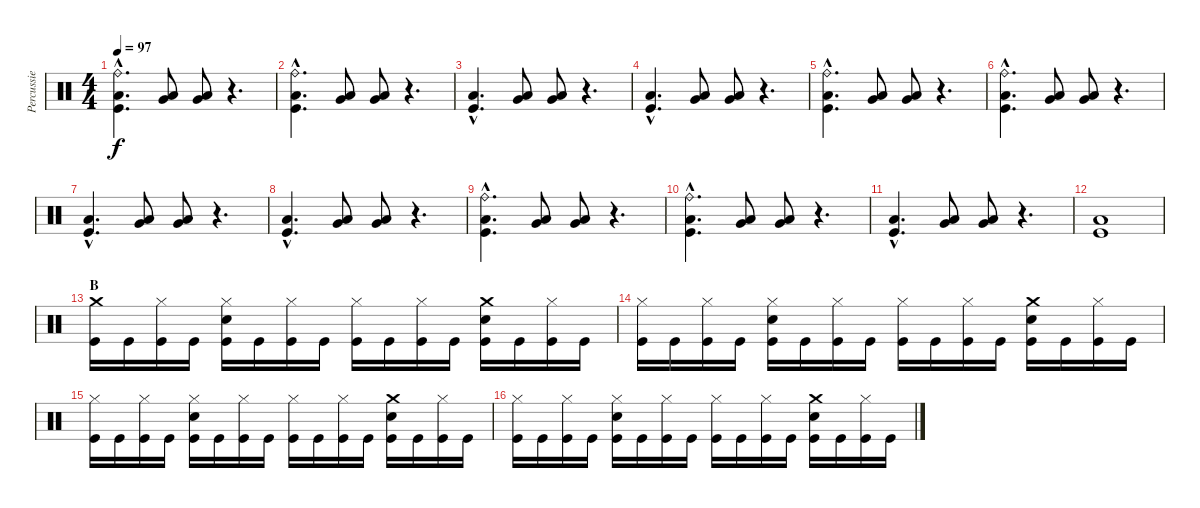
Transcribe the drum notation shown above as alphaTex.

\track ("Percussie" "Percussie") {instrument percussion}
\staff {score}
\articulation defaults
\ts (4 4)
\tempo 97
\clef neutral
\ks c
("Ride (bell)"{hac} "Low Floor Tom (hit)"{hac} "Kick (hit)"{hac}).4{d dy f} ("Low Tom (hit)" "Very Low Tom (hit)").8 ("Low Tom (hit)" "Very Low Tom (hit)").8 r.4{d} |
("Ride (bell)"{hac} "Low Floor Tom (hit)"{hac} "Kick (hit)"{hac}).4{d} ("Low Tom (hit)" "Very Low Tom (hit)").8 ("Low Tom (hit)" "Very Low Tom (hit)").8 r.4{d} |
("Low Floor Tom (hit)"{hac} "Kick (hit)"{hac}).4{d} ("Low Tom (hit)" "Very Low Tom (hit)").8 ("Low Tom (hit)" "Very Low Tom (hit)").8 r.4{d} |
("Low Floor Tom (hit)"{hac} "Kick (hit)"{hac}).4{d} ("Low Tom (hit)" "Very Low Tom (hit)").8 ("Low Tom (hit)" "Very Low Tom (hit)").8 r.4{d} |
("Ride (bell)"{hac} "Low Floor Tom (hit)"{hac} "Kick (hit)"{hac}).4{d} ("Low Tom (hit)" "Very Low Tom (hit)").8 ("Low Tom (hit)" "Very Low Tom (hit)").8 r.4{d} |
("Ride (bell)"{hac} "Low Floor Tom (hit)"{hac} "Kick (hit)"{hac}).4{d} ("Low Tom (hit)" "Very Low Tom (hit)").8 ("Low Tom (hit)" "Very Low Tom (hit)").8 r.4{d} |
("Low Floor Tom (hit)"{hac} "Kick (hit)"{hac}).4{d} ("Low Tom (hit)" "Very Low Tom (hit)").8 ("Low Tom (hit)" "Very Low Tom (hit)").8 r.4{d} |
("Low Floor Tom (hit)"{hac} "Kick (hit)"{hac}).4{d} ("Low Tom (hit)" "Very Low Tom (hit)").8 ("Low Tom (hit)" "Very Low Tom (hit)").8 r.4{d} |
("Ride (bell)"{hac} "Low Floor Tom (hit)"{hac} "Kick (hit)"{hac}).4{d} ("Low Tom (hit)" "Very Low Tom (hit)").8 ("Low Tom (hit)" "Very Low Tom (hit)").8 r.4{d} |
("Ride (bell)"{hac} "Low Floor Tom (hit)"{hac} "Kick (hit)"{hac}).4{d} ("Low Tom (hit)" "Very Low Tom (hit)").8 ("Low Tom (hit)" "Very Low Tom (hit)").8 r.4{d} |
("Low Floor Tom (hit)"{hac} "Kick (hit)"{hac}).4{d} ("Low Tom (hit)" "Very Low Tom (hit)").8 ("Low Tom (hit)" "Very Low Tom (hit)").8 r.4{d} |
("Low Floor Tom (hit)" "Kick (hit)").1 |
\section ("" "B")
("Crash medium (hit)" "Kick (hit)").16 "Kick (hit)".16 ("Hi-Hat (closed)" "Kick (hit)").16 "Kick (hit)".16 ("Hi-Hat (closed)" "Electric Snare (hit)" "Kick (hit)").16 "Kick (hit)".16 ("Hi-Hat (closed)" "Kick (hit)").16 "Kick (hit)".16 ("Hi-Hat (closed)" "Kick (hit)").16 "Kick (hit)".16 ("Hi-Hat (closed)" "Kick (hit)").16 "Kick (hit)".16 ("Crash medium (hit)" "Electric Snare (hit)" "Kick (hit)").16 "Kick (hit)".16 ("Hi-Hat (closed)" "Kick (hit)").16 "Kick (hit)".16 |
("Hi-Hat (closed)" "Kick (hit)").16 "Kick (hit)".16 ("Hi-Hat (closed)" "Kick (hit)").16 "Kick (hit)".16 ("Hi-Hat (closed)" "Electric Snare (hit)" "Kick (hit)").16 "Kick (hit)".16 ("Hi-Hat (closed)" "Kick (hit)").16 "Kick (hit)".16 ("Hi-Hat (closed)" "Kick (hit)").16 "Kick (hit)".16 ("Hi-Hat (closed)" "Kick (hit)").16 "Kick (hit)".16 ("Crash medium (hit)" "Electric Snare (hit)" "Kick (hit)").16 "Kick (hit)".16 ("Hi-Hat (closed)" "Kick (hit)").16 "Kick (hit)".16 |
("Hi-Hat (closed)" "Kick (hit)").16 "Kick (hit)".16 ("Hi-Hat (closed)" "Kick (hit)").16 "Kick (hit)".16 ("Hi-Hat (closed)" "Electric Snare (hit)" "Kick (hit)").16 "Kick (hit)".16 ("Hi-Hat (closed)" "Kick (hit)").16 "Kick (hit)".16 ("Hi-Hat (closed)" "Kick (hit)").16 "Kick (hit)".16 ("Hi-Hat (closed)" "Kick (hit)").16 "Kick (hit)".16 ("Crash medium (hit)" "Electric Snare (hit)" "Kick (hit)").16 "Kick (hit)".16 ("Hi-Hat (closed)" "Kick (hit)").16 "Kick (hit)".16 |
("Hi-Hat (closed)" "Kick (hit)").16 "Kick (hit)".16 ("Hi-Hat (closed)" "Kick (hit)").16 "Kick (hit)".16 ("Hi-Hat (closed)" "Electric Snare (hit)" "Kick (hit)").16 "Kick (hit)".16 ("Hi-Hat (closed)" "Kick (hit)").16 "Kick (hit)".16 ("Hi-Hat (closed)" "Kick (hit)").16 "Kick (hit)".16 ("Hi-Hat (closed)" "Kick (hit)").16 "Kick (hit)".16 ("Crash medium (hit)" "Electric Snare (hit)" "Kick (hit)").16 "Kick (hit)".16 ("Hi-Hat (closed)" "Kick (hit)").16 "Kick (hit)".16
